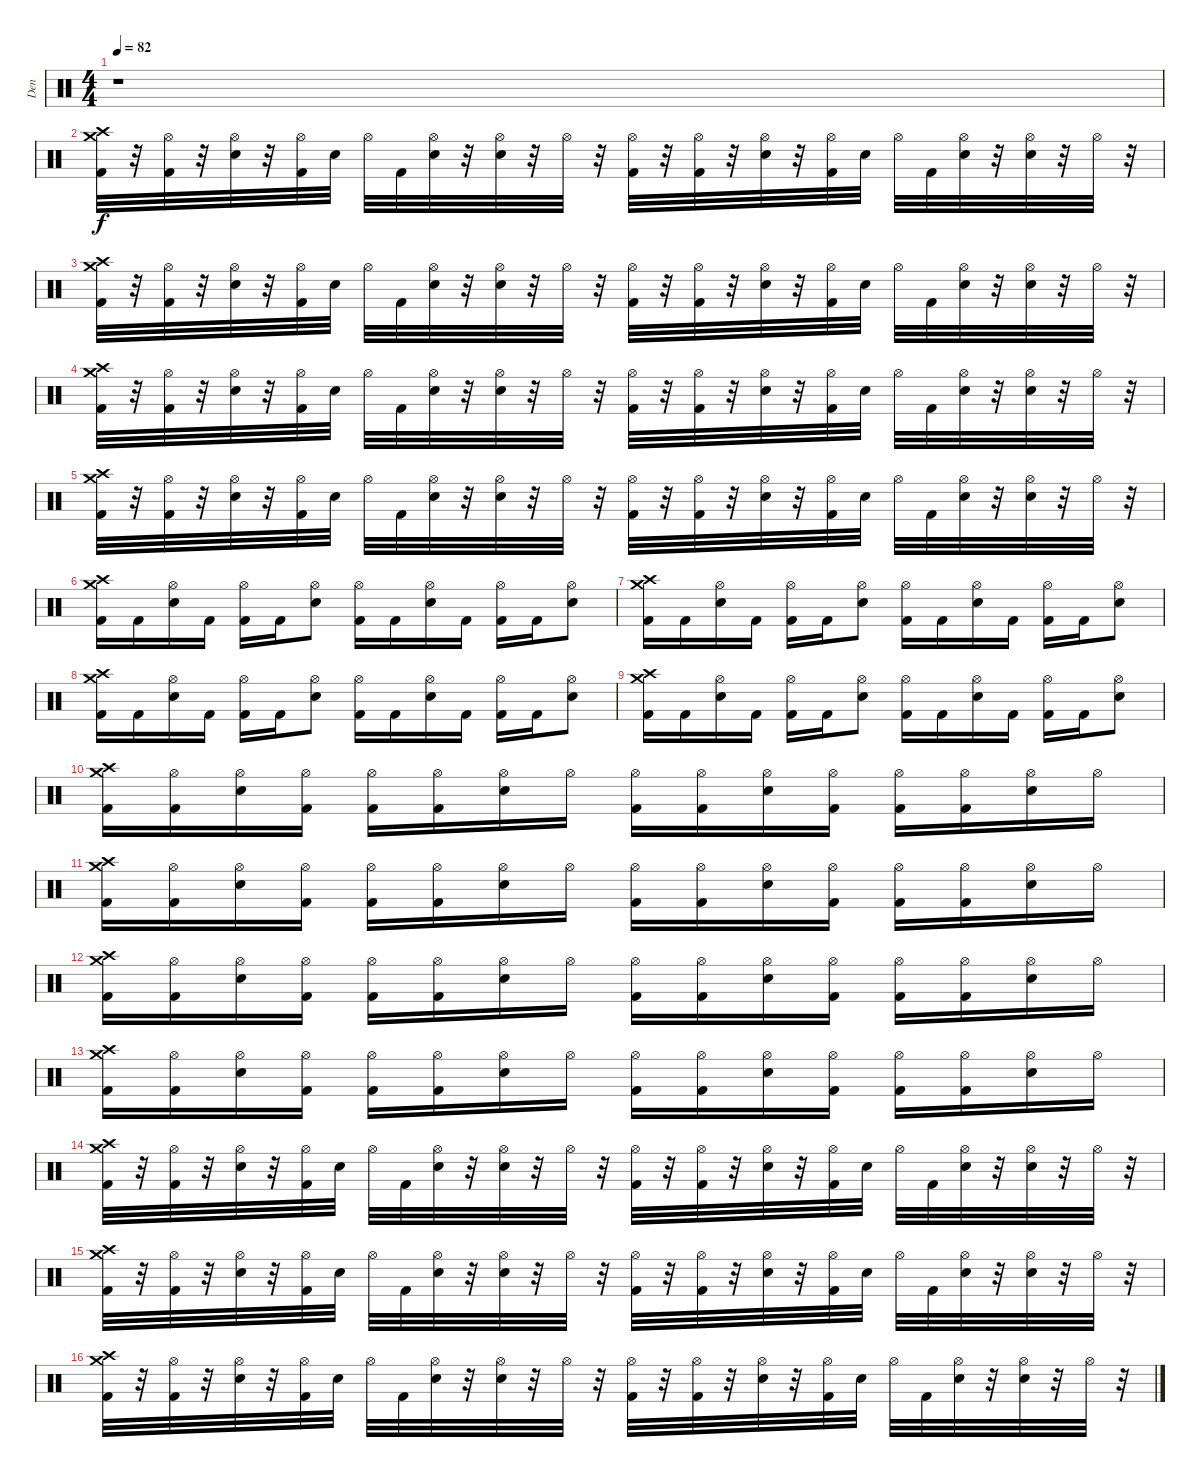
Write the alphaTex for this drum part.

\track ("Den" "Den") {instrument percussion}
\staff {score}
\articulation defaults
\ts (4 4)
\tempo 82
\clef neutral
\ks c
r.1{dy f} |
("Crash high (hit)" "Crash medium (hit)" "Kick (hit) 2").32 r.32 ("Hi-Hat (open)" "Kick (hit) 2").32 r.32 ("Hi-Hat (open)" "Electric Snare (hit)").32 r.32 ("Hi-Hat (open)" "Kick (hit) 2").32 "Electric Snare (hit)".32 "Hi-Hat (open)".32 "Kick (hit) 2".32 ("Hi-Hat (open)" "Electric Snare (hit)").32 r.32 ("Hi-Hat (open)" "Electric Snare (hit)").32 r.32 "Hi-Hat (open)".32 r.32 ("Hi-Hat (open)" "Kick (hit) 2").32 r.32 ("Hi-Hat (open)" "Kick (hit) 2").32 r.32 ("Hi-Hat (open)" "Electric Snare (hit)").32 r.32 ("Hi-Hat (open)" "Kick (hit) 2").32 "Electric Snare (hit)".32 "Hi-Hat (open)".32 "Kick (hit) 2".32 ("Hi-Hat (open)" "Electric Snare (hit)").32 r.32 ("Hi-Hat (open)" "Electric Snare (hit)").32 r.32 "Hi-Hat (open)".32 r.32 |
("Crash high (hit)" "Crash medium (hit)" "Kick (hit) 2").32 r.32 ("Hi-Hat (open)" "Kick (hit) 2").32 r.32 ("Hi-Hat (open)" "Electric Snare (hit)").32 r.32 ("Hi-Hat (open)" "Kick (hit) 2").32 "Electric Snare (hit)".32 "Hi-Hat (open)".32 "Kick (hit) 2".32 ("Hi-Hat (open)" "Electric Snare (hit)").32 r.32 ("Hi-Hat (open)" "Electric Snare (hit)").32 r.32 "Hi-Hat (open)".32 r.32 ("Hi-Hat (open)" "Kick (hit) 2").32 r.32 ("Hi-Hat (open)" "Kick (hit) 2").32 r.32 ("Hi-Hat (open)" "Electric Snare (hit)").32 r.32 ("Hi-Hat (open)" "Kick (hit) 2").32 "Electric Snare (hit)".32 "Hi-Hat (open)".32 "Kick (hit) 2".32 ("Hi-Hat (open)" "Electric Snare (hit)").32 r.32 ("Hi-Hat (open)" "Electric Snare (hit)").32 r.32 "Hi-Hat (open)".32 r.32 |
("Crash high (hit)" "Crash medium (hit)" "Kick (hit) 2").32 r.32 ("Hi-Hat (open)" "Kick (hit) 2").32 r.32 ("Hi-Hat (open)" "Electric Snare (hit)").32 r.32 ("Hi-Hat (open)" "Kick (hit) 2").32 "Electric Snare (hit)".32 "Hi-Hat (open)".32 "Kick (hit) 2".32 ("Hi-Hat (open)" "Electric Snare (hit)").32 r.32 ("Hi-Hat (open)" "Electric Snare (hit)").32 r.32 "Hi-Hat (open)".32 r.32 ("Hi-Hat (open)" "Kick (hit) 2").32 r.32 ("Hi-Hat (open)" "Kick (hit) 2").32 r.32 ("Hi-Hat (open)" "Electric Snare (hit)").32 r.32 ("Hi-Hat (open)" "Kick (hit) 2").32 "Electric Snare (hit)".32 "Hi-Hat (open)".32 "Kick (hit) 2".32 ("Hi-Hat (open)" "Electric Snare (hit)").32 r.32 ("Hi-Hat (open)" "Electric Snare (hit)").32 r.32 "Hi-Hat (open)".32 r.32 |
("Crash high (hit)" "Crash medium (hit)" "Kick (hit) 2").32 r.32 ("Hi-Hat (open)" "Kick (hit) 2").32 r.32 ("Hi-Hat (open)" "Electric Snare (hit)").32 r.32 ("Hi-Hat (open)" "Kick (hit) 2").32 "Electric Snare (hit)".32 "Hi-Hat (open)".32 "Kick (hit) 2".32 ("Hi-Hat (open)" "Electric Snare (hit)").32 r.32 ("Hi-Hat (open)" "Electric Snare (hit)").32 r.32 "Hi-Hat (open)".32 r.32 ("Hi-Hat (open)" "Kick (hit) 2").32 r.32 ("Hi-Hat (open)" "Kick (hit) 2").32 r.32 ("Hi-Hat (open)" "Electric Snare (hit)").32 r.32 ("Hi-Hat (open)" "Kick (hit) 2").32 "Electric Snare (hit)".32 "Hi-Hat (open)".32 "Kick (hit) 2".32 ("Hi-Hat (open)" "Electric Snare (hit)").32 r.32 ("Hi-Hat (open)" "Electric Snare (hit)").32 r.32 "Hi-Hat (open)".32 r.32 |
("Crash high (hit)" "Crash medium (hit)" "Kick (hit) 2").16 "Kick (hit) 2".16 ("Hi-Hat (open)" "Electric Snare (hit)").16 "Kick (hit) 2".16 ("Hi-Hat (open)" "Kick (hit) 2").16 "Kick (hit) 2".16 ("Hi-Hat (open)" "Electric Snare (hit)").8 ("Hi-Hat (open)" "Kick (hit) 2").16 "Kick (hit) 2".16 ("Hi-Hat (open)" "Electric Snare (hit)").16 "Kick (hit) 2".16 ("Hi-Hat (open)" "Kick (hit) 2").16 "Kick (hit) 2".16 ("Hi-Hat (open)" "Electric Snare (hit)").8 |
("Crash high (hit)" "Crash medium (hit)" "Kick (hit) 2").16 "Kick (hit) 2".16 ("Hi-Hat (open)" "Electric Snare (hit)").16 "Kick (hit) 2".16 ("Hi-Hat (open)" "Kick (hit) 2").16 "Kick (hit) 2".16 ("Hi-Hat (open)" "Electric Snare (hit)").8 ("Hi-Hat (open)" "Kick (hit) 2").16 "Kick (hit) 2".16 ("Hi-Hat (open)" "Electric Snare (hit)").16 "Kick (hit) 2".16 ("Hi-Hat (open)" "Kick (hit) 2").16 "Kick (hit) 2".16 ("Hi-Hat (open)" "Electric Snare (hit)").8 |
("Crash high (hit)" "Crash medium (hit)" "Kick (hit) 2").16 "Kick (hit) 2".16 ("Hi-Hat (open)" "Electric Snare (hit)").16 "Kick (hit) 2".16 ("Hi-Hat (open)" "Kick (hit) 2").16 "Kick (hit) 2".16 ("Hi-Hat (open)" "Electric Snare (hit)").8 ("Hi-Hat (open)" "Kick (hit) 2").16 "Kick (hit) 2".16 ("Hi-Hat (open)" "Electric Snare (hit)").16 "Kick (hit) 2".16 ("Hi-Hat (open)" "Kick (hit) 2").16 "Kick (hit) 2".16 ("Hi-Hat (open)" "Electric Snare (hit)").8 |
("Crash high (hit)" "Crash medium (hit)" "Kick (hit) 2").16 "Kick (hit) 2".16 ("Hi-Hat (open)" "Electric Snare (hit)").16 "Kick (hit) 2".16 ("Hi-Hat (open)" "Kick (hit) 2").16 "Kick (hit) 2".16 ("Hi-Hat (open)" "Electric Snare (hit)").8 ("Hi-Hat (open)" "Kick (hit) 2").16 "Kick (hit) 2".16 ("Hi-Hat (open)" "Electric Snare (hit)").16 "Kick (hit) 2".16 ("Hi-Hat (open)" "Kick (hit) 2").16 "Kick (hit) 2".16 ("Hi-Hat (open)" "Electric Snare (hit)").8 |
("Crash high (hit)" "Crash medium (hit)" "Kick (hit) 2").16 ("Hi-Hat (open)" "Kick (hit) 2").16 ("Hi-Hat (open)" "Electric Snare (hit)").16 ("Hi-Hat (open)" "Kick (hit) 2").16 ("Hi-Hat (open)" "Kick (hit) 2").16 ("Hi-Hat (open)" "Kick (hit) 2").16 ("Hi-Hat (open)" "Electric Snare (hit)").16 "Hi-Hat (open)".16 ("Hi-Hat (open)" "Kick (hit) 2").16 ("Hi-Hat (open)" "Kick (hit) 2").16 ("Hi-Hat (open)" "Electric Snare (hit)").16 ("Hi-Hat (open)" "Kick (hit) 2").16 ("Hi-Hat (open)" "Kick (hit) 2").16 ("Hi-Hat (open)" "Kick (hit) 2").16 ("Hi-Hat (open)" "Electric Snare (hit)").16 "Hi-Hat (open)".16 |
("Crash high (hit)" "Crash medium (hit)" "Kick (hit) 2").16 ("Hi-Hat (open)" "Kick (hit) 2").16 ("Hi-Hat (open)" "Electric Snare (hit)").16 ("Hi-Hat (open)" "Kick (hit) 2").16 ("Hi-Hat (open)" "Kick (hit) 2").16 ("Hi-Hat (open)" "Kick (hit) 2").16 ("Hi-Hat (open)" "Electric Snare (hit)").16 "Hi-Hat (open)".16 ("Hi-Hat (open)" "Kick (hit) 2").16 ("Hi-Hat (open)" "Kick (hit) 2").16 ("Hi-Hat (open)" "Electric Snare (hit)").16 ("Hi-Hat (open)" "Kick (hit) 2").16 ("Hi-Hat (open)" "Kick (hit) 2").16 ("Hi-Hat (open)" "Kick (hit) 2").16 ("Hi-Hat (open)" "Electric Snare (hit)").16 "Hi-Hat (open)".16 |
("Crash high (hit)" "Crash medium (hit)" "Kick (hit) 2").16 ("Hi-Hat (open)" "Kick (hit) 2").16 ("Hi-Hat (open)" "Electric Snare (hit)").16 ("Hi-Hat (open)" "Kick (hit) 2").16 ("Hi-Hat (open)" "Kick (hit) 2").16 ("Hi-Hat (open)" "Kick (hit) 2").16 ("Hi-Hat (open)" "Electric Snare (hit)").16 "Hi-Hat (open)".16 ("Hi-Hat (open)" "Kick (hit) 2").16 ("Hi-Hat (open)" "Kick (hit) 2").16 ("Hi-Hat (open)" "Electric Snare (hit)").16 ("Hi-Hat (open)" "Kick (hit) 2").16 ("Hi-Hat (open)" "Kick (hit) 2").16 ("Hi-Hat (open)" "Kick (hit) 2").16 ("Hi-Hat (open)" "Electric Snare (hit)").16 "Hi-Hat (open)".16 |
("Crash high (hit)" "Crash medium (hit)" "Kick (hit) 2").16 ("Hi-Hat (open)" "Kick (hit) 2").16 ("Hi-Hat (open)" "Electric Snare (hit)").16 ("Hi-Hat (open)" "Kick (hit) 2").16 ("Hi-Hat (open)" "Kick (hit) 2").16 ("Hi-Hat (open)" "Kick (hit) 2").16 ("Hi-Hat (open)" "Electric Snare (hit)").16 "Hi-Hat (open)".16 ("Hi-Hat (open)" "Kick (hit) 2").16 ("Hi-Hat (open)" "Kick (hit) 2").16 ("Hi-Hat (open)" "Electric Snare (hit)").16 ("Hi-Hat (open)" "Kick (hit) 2").16 ("Hi-Hat (open)" "Kick (hit) 2").16 ("Hi-Hat (open)" "Kick (hit) 2").16 ("Hi-Hat (open)" "Electric Snare (hit)").16 "Hi-Hat (open)".16 |
("Crash high (hit)" "Crash medium (hit)" "Kick (hit) 2").32 r.32 ("Hi-Hat (open)" "Kick (hit) 2").32 r.32 ("Hi-Hat (open)" "Electric Snare (hit)").32 r.32 ("Hi-Hat (open)" "Kick (hit) 2").32 "Electric Snare (hit)".32 "Hi-Hat (open)".32 "Kick (hit) 2".32 ("Hi-Hat (open)" "Electric Snare (hit)").32 r.32 ("Hi-Hat (open)" "Electric Snare (hit)").32 r.32 "Hi-Hat (open)".32 r.32 ("Hi-Hat (open)" "Kick (hit) 2").32 r.32 ("Hi-Hat (open)" "Kick (hit) 2").32 r.32 ("Hi-Hat (open)" "Electric Snare (hit)").32 r.32 ("Hi-Hat (open)" "Kick (hit) 2").32 "Electric Snare (hit)".32 "Hi-Hat (open)".32 "Kick (hit) 2".32 ("Hi-Hat (open)" "Electric Snare (hit)").32 r.32 ("Hi-Hat (open)" "Electric Snare (hit)").32 r.32 "Hi-Hat (open)".32 r.32 |
("Crash high (hit)" "Crash medium (hit)" "Kick (hit) 2").32 r.32 ("Hi-Hat (open)" "Kick (hit) 2").32 r.32 ("Hi-Hat (open)" "Electric Snare (hit)").32 r.32 ("Hi-Hat (open)" "Kick (hit) 2").32 "Electric Snare (hit)".32 "Hi-Hat (open)".32 "Kick (hit) 2".32 ("Hi-Hat (open)" "Electric Snare (hit)").32 r.32 ("Hi-Hat (open)" "Electric Snare (hit)").32 r.32 "Hi-Hat (open)".32 r.32 ("Hi-Hat (open)" "Kick (hit) 2").32 r.32 ("Hi-Hat (open)" "Kick (hit) 2").32 r.32 ("Hi-Hat (open)" "Electric Snare (hit)").32 r.32 ("Hi-Hat (open)" "Kick (hit) 2").32 "Electric Snare (hit)".32 "Hi-Hat (open)".32 "Kick (hit) 2".32 ("Hi-Hat (open)" "Electric Snare (hit)").32 r.32 ("Hi-Hat (open)" "Electric Snare (hit)").32 r.32 "Hi-Hat (open)".32 r.32 |
("Crash high (hit)" "Crash medium (hit)" "Kick (hit) 2").32 r.32 ("Hi-Hat (open)" "Kick (hit) 2").32 r.32 ("Hi-Hat (open)" "Electric Snare (hit)").32 r.32 ("Hi-Hat (open)" "Kick (hit) 2").32 "Electric Snare (hit)".32 "Hi-Hat (open)".32 "Kick (hit) 2".32 ("Hi-Hat (open)" "Electric Snare (hit)").32 r.32 ("Hi-Hat (open)" "Electric Snare (hit)").32 r.32 "Hi-Hat (open)".32 r.32 ("Hi-Hat (open)" "Kick (hit) 2").32 r.32 ("Hi-Hat (open)" "Kick (hit) 2").32 r.32 ("Hi-Hat (open)" "Electric Snare (hit)").32 r.32 ("Hi-Hat (open)" "Kick (hit) 2").32 "Electric Snare (hit)".32 "Hi-Hat (open)".32 "Kick (hit) 2".32 ("Hi-Hat (open)" "Electric Snare (hit)").32 r.32 ("Hi-Hat (open)" "Electric Snare (hit)").32 r.32 "Hi-Hat (open)".32 r.32
